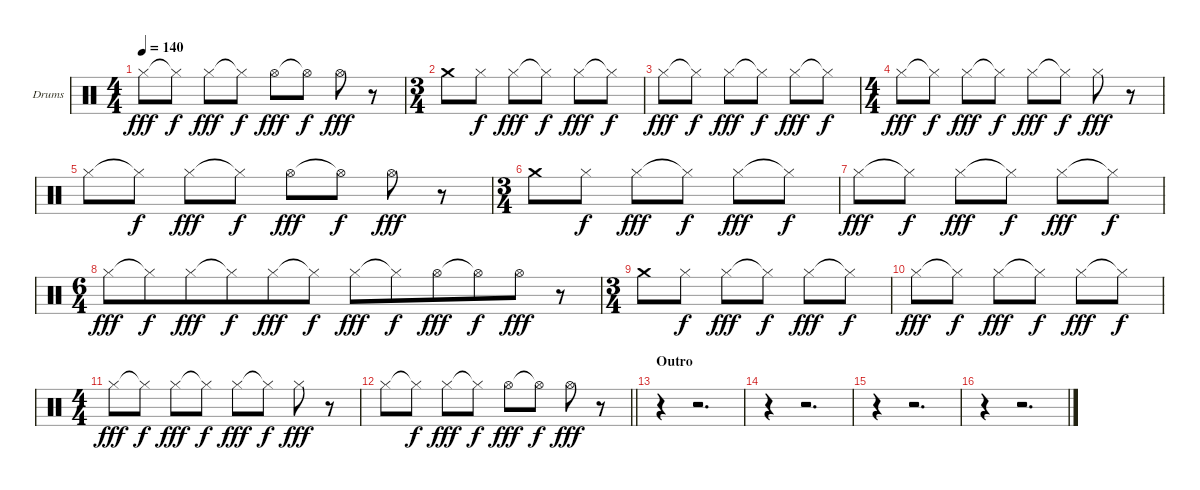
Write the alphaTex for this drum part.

\bracketExtendMode groupsimilarinstruments
\firstSystemTrackNameOrientation horizontal
\otherSystemsTrackNameOrientation horizontal
\track ("Drumkit" "Drums") {instrument percussion}
\staff {score}
\articulation defaults
\ts (4 4)
\tempo 140
\clef neutral
\ks c "Hi-Hat (closed)".8{dy fff} "Hi-Hat (closed)"{t}.8{dy f} "Hi-Hat (closed)".8{dy fff} "Hi-Hat (closed)"{t}.8{dy f} "Hi-Hat (open)".8{dy fff} "Hi-Hat (open)"{t}.8{dy f} "Hi-Hat (open)".8{dy fff}
r.8 |
\ts (3 4)
\beaming (8 2 2 2 2)
"Crash medium (hit)".8 "Hi-Hat (closed)".8{dy f} "Hi-Hat (closed)".8{dy fff} "Hi-Hat (closed)"{t}.8{dy f} "Hi-Hat (closed)".8{dy fff} "Hi-Hat (closed)"{t}.8{dy f} |
"Hi-Hat (closed)".8{dy fff} "Hi-Hat (closed)"{t}.8{dy f} "Hi-Hat (closed)".8{dy fff} "Hi-Hat (closed)"{t}.8{dy f} "Hi-Hat (closed)".8{dy fff} "Hi-Hat (closed)"{t}.8{dy f} |
\ts (4 4)
\beaming (8 2 2 2 2)
"Hi-Hat (closed)".8{dy fff} "Hi-Hat (closed)"{t}.8{dy f} "Hi-Hat (closed)".8{dy fff} "Hi-Hat (closed)"{t}.8{dy f} "Hi-Hat (closed)".8{dy fff} "Hi-Hat (closed)"{t}.8{dy f} "Hi-Hat (closed)".8{dy fff} r.8 |
"Hi-Hat (closed)".8 "Hi-Hat (closed)"{t}.8{dy f} "Hi-Hat (closed)".8{dy fff} "Hi-Hat (closed)"{t}.8{dy f} "Hi-Hat (open)".8{dy fff} "Hi-Hat (open)"{t}.8{dy f} "Hi-Hat (open)".8{dy fff} r.8 |
\ts (3 4)
\beaming (8 2 2 2 2)
"Crash medium (hit)".8 "Hi-Hat (closed)".8{dy f} "Hi-Hat (closed)".8{dy fff} "Hi-Hat (closed)"{t}.8{dy f} "Hi-Hat (closed)".8{dy fff} "Hi-Hat (closed)"{t}.8{dy f} |
\beaming (8 2 2 2)
"Hi-Hat (closed)".8{dy fff} "Hi-Hat (closed)"{t}.8{dy f} "Hi-Hat (closed)".8{dy fff} "Hi-Hat (closed)"{t}.8{dy f} "Hi-Hat (closed)".8{dy fff} "Hi-Hat (closed)"{t}.8{dy f} |
\ts (6 4)
\beaming (8 6 6)
"Hi-Hat (closed)".8{dy fff} "Hi-Hat (closed)"{t}.8{dy f} "Hi-Hat (closed)".8{dy fff} "Hi-Hat (closed)"{t}.8{dy f} "Hi-Hat (closed)".8{dy fff} "Hi-Hat (closed)"{t}.8{dy f} "Hi-Hat (closed)".8{dy fff} "Hi-Hat (closed)"{t}.8{dy f} "Hi-Hat (open)".8{dy fff} "Hi-Hat (open)"{t}.8{dy f} "Hi-Hat (open)".8{dy fff} r.8 |
\ts (3 4)
\beaming (8 2 2 2)
"Crash medium (hit)".8 "Hi-Hat (closed)".8{dy f} "Hi-Hat (closed)".8{dy fff} "Hi-Hat (closed)"{t}.8{dy f} "Hi-Hat (closed)".8{dy fff} "Hi-Hat (closed)"{t}.8{dy f} |
"Hi-Hat (closed)".8{dy fff} "Hi-Hat (closed)"{t}.8{dy f} "Hi-Hat (closed)".8{dy fff} "Hi-Hat (closed)"{t}.8{dy f} "Hi-Hat (closed)".8{dy fff} "Hi-Hat (closed)"{t}.8{dy f} |
\ts (4 4)
\beaming (8 2 2 2 2)
"Hi-Hat (closed)".8{dy fff} "Hi-Hat (closed)"{t}.8{dy f} "Hi-Hat (closed)".8{dy fff} "Hi-Hat (closed)"{t}.8{dy f} "Hi-Hat (closed)".8{dy fff} "Hi-Hat (closed)"{t}.8{dy f} "Hi-Hat (closed)".8{dy fff} r.8 |
\barLineRight lightlight "Hi-Hat (closed)".8 "Hi-Hat (closed)"{t}.8{dy f} "Hi-Hat (closed)".8{dy fff} "Hi-Hat (closed)"{t}.8{dy f} "Hi-Hat (open)".8{dy fff} "Hi-Hat (open)"{t}.8{dy f} "Hi-Hat (open)".8{dy fff}
r.8 |
\section ("" "Outro")
r.4 r.2{d} |
r.4 r.2{d} |
r.4 r.2{d} |
r.4 r.2{d}
